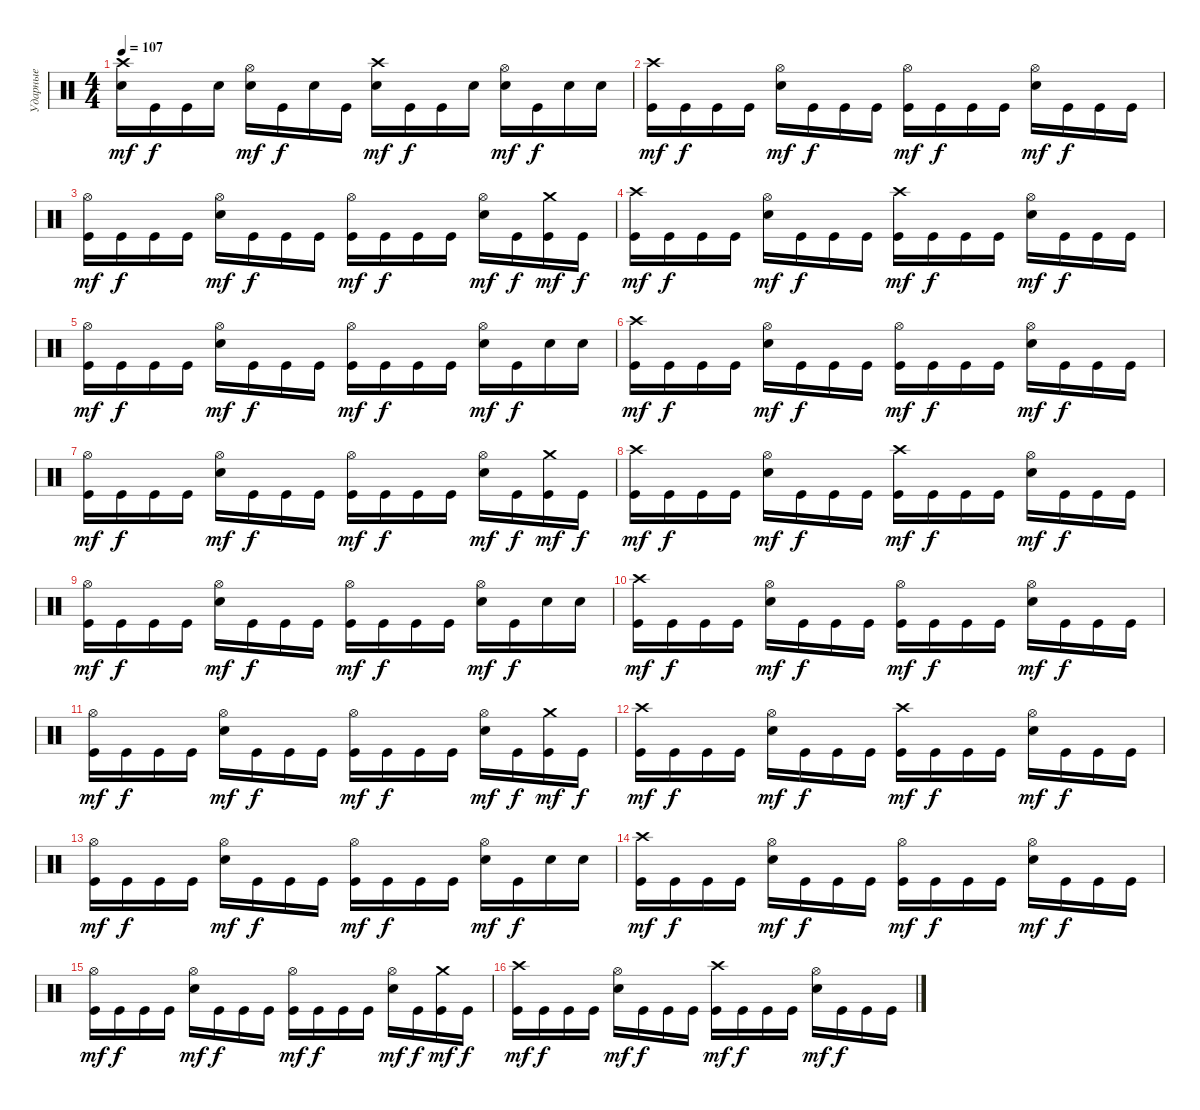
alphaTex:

\track ("Ударные" "Ударные") {instrument percussion}
\staff {score}
\articulation defaults
\ts (4 4)
\tempo 107
\clef neutral
\ks c
("Crash high (hit)" "Electric Snare (hit)").16{dy mf} "Kick (hit)".16{dy f} "Kick (hit)".16 "Electric Snare (hit)".16 ("Hi-Hat (open)" "Electric Snare (hit)").16{dy mf} "Kick (hit)".16{dy f} "Electric Snare (hit)".16 "Kick (hit)".16 ("Crash high (hit)" "Electric Snare (hit)").16{dy mf} "Kick (hit)".16{dy f} "Kick (hit)".16 "Electric Snare (hit)".16 ("Hi-Hat (open)" "Electric Snare (hit)").16{dy mf} "Kick (hit)".16{dy f} "Electric Snare (hit)".16 "Electric Snare (hit)".16 |
("Crash high (hit)" "Kick (hit)").16{dy mf} "Kick (hit)".16{dy f} "Kick (hit)".16 "Kick (hit)".16 ("Hi-Hat (open)" "Electric Snare (hit)").16{dy mf} "Kick (hit)".16{dy f} "Kick (hit)".16 "Kick (hit)".16 ("Hi-Hat (open)" "Kick (hit)").16{dy mf} "Kick (hit)".16{dy f} "Kick (hit)".16 "Kick (hit)".16 ("Hi-Hat (open)" "Electric Snare (hit)").16{dy mf} "Kick (hit)".16{dy f} "Kick (hit)".16 "Kick (hit)".16 |
("Hi-Hat (open)" "Kick (hit)").16{dy mf} "Kick (hit)".16{dy f} "Kick (hit)".16 "Kick (hit)".16 ("Hi-Hat (open)" "Electric Snare (hit)").16{dy mf} "Kick (hit)".16{dy f} "Kick (hit)".16 "Kick (hit)".16 ("Hi-Hat (open)" "Kick (hit)").16{dy mf} "Kick (hit)".16{dy f} "Kick (hit)".16 "Kick (hit)".16 ("Hi-Hat (open)" "Electric Snare (hit)").16{dy mf} "Kick (hit)".16{dy f} ("Crash medium (hit)" "Kick (hit)").16{dy mf} "Kick (hit)".16{dy f} |
("Crash high (hit)" "Kick (hit)").16{dy mf} "Kick (hit)".16{dy f} "Kick (hit)".16 "Kick (hit)".16 ("Hi-Hat (open)" "Electric Snare (hit)").16{dy mf} "Kick (hit)".16{dy f} "Kick (hit)".16 "Kick (hit)".16 ("Crash high (hit)" "Kick (hit)").16{dy mf} "Kick (hit)".16{dy f} "Kick (hit)".16 "Kick (hit)".16 ("Hi-Hat (open)" "Electric Snare (hit)").16{dy mf} "Kick (hit)".16{dy f} "Kick (hit)".16 "Kick (hit)".16 |
("Hi-Hat (open)" "Kick (hit)").16{dy mf} "Kick (hit)".16{dy f} "Kick (hit)".16 "Kick (hit)".16 ("Hi-Hat (open)" "Electric Snare (hit)").16{dy mf} "Kick (hit)".16{dy f} "Kick (hit)".16 "Kick (hit)".16 ("Hi-Hat (open)" "Kick (hit)").16{dy mf} "Kick (hit)".16{dy f} "Kick (hit)".16 "Kick (hit)".16 ("Hi-Hat (open)" "Electric Snare (hit)").16{dy mf} "Kick (hit)".16{dy f} "Electric Snare (hit)".16 "Electric Snare (hit)".16 |
("Crash high (hit)" "Kick (hit)").16{dy mf} "Kick (hit)".16{dy f} "Kick (hit)".16 "Kick (hit)".16 ("Hi-Hat (open)" "Electric Snare (hit)").16{dy mf} "Kick (hit)".16{dy f} "Kick (hit)".16 "Kick (hit)".16 ("Hi-Hat (open)" "Kick (hit)").16{dy mf} "Kick (hit)".16{dy f} "Kick (hit)".16 "Kick (hit)".16 ("Hi-Hat (open)" "Electric Snare (hit)").16{dy mf} "Kick (hit)".16{dy f} "Kick (hit)".16 "Kick (hit)".16 |
("Hi-Hat (open)" "Kick (hit)").16{dy mf} "Kick (hit)".16{dy f} "Kick (hit)".16 "Kick (hit)".16 ("Hi-Hat (open)" "Electric Snare (hit)").16{dy mf} "Kick (hit)".16{dy f} "Kick (hit)".16 "Kick (hit)".16 ("Hi-Hat (open)" "Kick (hit)").16{dy mf} "Kick (hit)".16{dy f} "Kick (hit)".16 "Kick (hit)".16 ("Hi-Hat (open)" "Electric Snare (hit)").16{dy mf} "Kick (hit)".16{dy f} ("Crash medium (hit)" "Kick (hit)").16{dy mf} "Kick (hit)".16{dy f} |
("Crash high (hit)" "Kick (hit)").16{dy mf} "Kick (hit)".16{dy f} "Kick (hit)".16 "Kick (hit)".16 ("Hi-Hat (open)" "Electric Snare (hit)").16{dy mf} "Kick (hit)".16{dy f} "Kick (hit)".16 "Kick (hit)".16 ("Crash high (hit)" "Kick (hit)").16{dy mf} "Kick (hit)".16{dy f} "Kick (hit)".16 "Kick (hit)".16 ("Hi-Hat (open)" "Electric Snare (hit)").16{dy mf} "Kick (hit)".16{dy f} "Kick (hit)".16 "Kick (hit)".16 |
("Hi-Hat (open)" "Kick (hit)").16{dy mf} "Kick (hit)".16{dy f} "Kick (hit)".16 "Kick (hit)".16 ("Hi-Hat (open)" "Electric Snare (hit)").16{dy mf} "Kick (hit)".16{dy f} "Kick (hit)".16 "Kick (hit)".16 ("Hi-Hat (open)" "Kick (hit)").16{dy mf} "Kick (hit)".16{dy f} "Kick (hit)".16 "Kick (hit)".16 ("Hi-Hat (open)" "Electric Snare (hit)").16{dy mf} "Kick (hit)".16{dy f} "Electric Snare (hit)".16 "Electric Snare (hit)".16 |
("Crash high (hit)" "Kick (hit)").16{dy mf} "Kick (hit)".16{dy f} "Kick (hit)".16 "Kick (hit)".16 ("Hi-Hat (open)" "Electric Snare (hit)").16{dy mf} "Kick (hit)".16{dy f} "Kick (hit)".16 "Kick (hit)".16 ("Hi-Hat (open)" "Kick (hit)").16{dy mf} "Kick (hit)".16{dy f} "Kick (hit)".16 "Kick (hit)".16 ("Hi-Hat (open)" "Electric Snare (hit)").16{dy mf} "Kick (hit)".16{dy f} "Kick (hit)".16 "Kick (hit)".16 |
("Hi-Hat (open)" "Kick (hit)").16{dy mf} "Kick (hit)".16{dy f} "Kick (hit)".16 "Kick (hit)".16 ("Hi-Hat (open)" "Electric Snare (hit)").16{dy mf} "Kick (hit)".16{dy f} "Kick (hit)".16 "Kick (hit)".16 ("Hi-Hat (open)" "Kick (hit)").16{dy mf} "Kick (hit)".16{dy f} "Kick (hit)".16 "Kick (hit)".16 ("Hi-Hat (open)" "Electric Snare (hit)").16{dy mf} "Kick (hit)".16{dy f} ("Crash medium (hit)" "Kick (hit)").16{dy mf} "Kick (hit)".16{dy f} |
("Crash high (hit)" "Kick (hit)").16{dy mf} "Kick (hit)".16{dy f} "Kick (hit)".16 "Kick (hit)".16 ("Hi-Hat (open)" "Electric Snare (hit)").16{dy mf} "Kick (hit)".16{dy f} "Kick (hit)".16 "Kick (hit)".16 ("Crash high (hit)" "Kick (hit)").16{dy mf} "Kick (hit)".16{dy f} "Kick (hit)".16 "Kick (hit)".16 ("Hi-Hat (open)" "Electric Snare (hit)").16{dy mf} "Kick (hit)".16{dy f} "Kick (hit)".16 "Kick (hit)".16 |
("Hi-Hat (open)" "Kick (hit)").16{dy mf} "Kick (hit)".16{dy f} "Kick (hit)".16 "Kick (hit)".16 ("Hi-Hat (open)" "Electric Snare (hit)").16{dy mf} "Kick (hit)".16{dy f} "Kick (hit)".16 "Kick (hit)".16 ("Hi-Hat (open)" "Kick (hit)").16{dy mf} "Kick (hit)".16{dy f} "Kick (hit)".16 "Kick (hit)".16 ("Hi-Hat (open)" "Electric Snare (hit)").16{dy mf} "Kick (hit)".16{dy f} "Electric Snare (hit)".16 "Electric Snare (hit)".16 |
("Crash high (hit)" "Kick (hit)").16{dy mf} "Kick (hit)".16{dy f} "Kick (hit)".16 "Kick (hit)".16 ("Hi-Hat (open)" "Electric Snare (hit)").16{dy mf} "Kick (hit)".16{dy f} "Kick (hit)".16 "Kick (hit)".16 ("Hi-Hat (open)" "Kick (hit)").16{dy mf} "Kick (hit)".16{dy f} "Kick (hit)".16 "Kick (hit)".16 ("Hi-Hat (open)" "Electric Snare (hit)").16{dy mf} "Kick (hit)".16{dy f} "Kick (hit)".16 "Kick (hit)".16 |
("Hi-Hat (open)" "Kick (hit)").16{dy mf} "Kick (hit)".16{dy f} "Kick (hit)".16 "Kick (hit)".16 ("Hi-Hat (open)" "Electric Snare (hit)").16{dy mf} "Kick (hit)".16{dy f} "Kick (hit)".16 "Kick (hit)".16 ("Hi-Hat (open)" "Kick (hit)").16{dy mf} "Kick (hit)".16{dy f} "Kick (hit)".16 "Kick (hit)".16 ("Hi-Hat (open)" "Electric Snare (hit)").16{dy mf} "Kick (hit)".16{dy f} ("Crash medium (hit)" "Kick (hit)").16{dy mf} "Kick (hit)".16{dy f} |
("Crash high (hit)" "Kick (hit)").16{dy mf} "Kick (hit)".16{dy f} "Kick (hit)".16 "Kick (hit)".16 ("Hi-Hat (open)" "Electric Snare (hit)").16{dy mf} "Kick (hit)".16{dy f} "Kick (hit)".16 "Kick (hit)".16 ("Crash high (hit)" "Kick (hit)").16{dy mf} "Kick (hit)".16{dy f} "Kick (hit)".16 "Kick (hit)".16 ("Hi-Hat (open)" "Electric Snare (hit)").16{dy mf} "Kick (hit)".16{dy f} "Kick (hit)".16 "Kick (hit)".16
